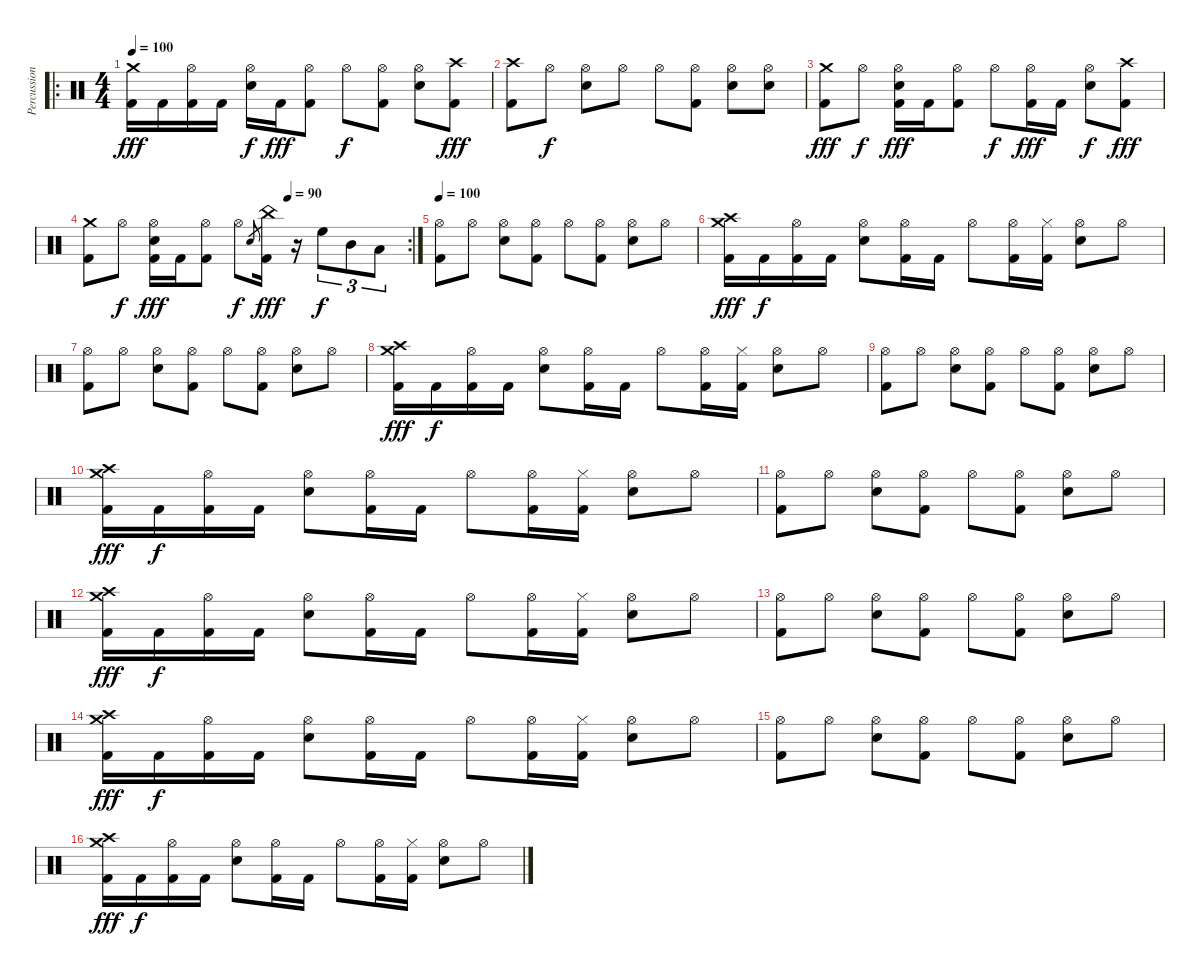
\track ("Percussion" "Percussion") {instrument percussion}
\staff {score}
\articulation defaults
\ro
\ts (4 4)
\tempo 100
\clef neutral
\ks c
("Crash medium (hit)" "Kick (hit) 2").16{dy fff} "Kick (hit) 2".16 ("Hi-Hat (open)" "Kick (hit) 2").16 "Kick (hit) 2".16 ("Hi-Hat (open)" "Electric Snare (hit)").16{dy f} "Kick (hit) 2".16{dy fff} ("Hi-Hat (open)" "Kick (hit) 2").8 "Hi-Hat (open)".8{dy f} ("Hi-Hat (open)" "Kick (hit) 2").8 ("Hi-Hat (open)" "Electric Snare (hit)").8 ("Crash high (hit)" "Kick (hit) 2").8{dy fff} |
("Crash high (hit)" "Kick (hit) 2").8 "Hi-Hat (open)".8{dy f} ("Hi-Hat (open)" "Electric Snare (hit)").8 "Hi-Hat (open)".8 "Hi-Hat (open)".8 ("Hi-Hat (open)" "Kick (hit) 2").8 ("Hi-Hat (open)" "Electric Snare (hit)").8 ("Hi-Hat (open)" "Electric Snare (hit)").8 |
("Crash medium (hit)" "Kick (hit) 2").8{dy fff} "Hi-Hat (open)".8{dy f} ("Hi-Hat (open)" "Electric Snare (hit)" "Kick (hit) 2").16{dy fff} "Kick (hit) 2".16 ("Hi-Hat (open)" "Kick (hit) 2").8 "Hi-Hat (open)".8{dy f} ("Hi-Hat (open)" "Kick (hit) 2").16{dy fff} "Kick (hit) 2".16 ("Hi-Hat (open)" "Electric Snare (hit)").8{dy f} ("Crash high (hit)" "Kick (hit) 2").8{dy fff} |
\rc 2
\tempo (90 0.625)
("Crash medium (hit)" "Kick (hit) 2").8 "Hi-Hat (open)".8{dy f} ("Hi-Hat (open)" "Electric Snare (hit)" "Kick (hit) 2").16{dy fff} "Kick (hit) 2".16 ("Hi-Hat (open)" "Kick (hit) 2").8 "Hi-Hat (open)".8{dy f} "Electric Snare (hit)".8{gr} ("China (hit)" "Kick (hit) 2").16{dy fff} r.16 "High Floor Tom (hit)".8{tu (3 2) dy f} "Mid Tom (hit)".8{tu (3 2)} "Low Tom (hit)".8{tu (3 2)} |
\tempo 100
("Hi-Hat (open)" "Kick (hit) 2").8 "Hi-Hat (open)".8 ("Hi-Hat (open)" "Electric Snare (hit)").8 ("Hi-Hat (open)" "Kick (hit) 2").8 "Hi-Hat (open)".8 ("Hi-Hat (open)" "Kick (hit) 2").8 ("Hi-Hat (open)" "Electric Snare (hit)").8 "Hi-Hat (open)".8 |
("Crash medium (hit)" "Crash high (hit)" "Kick (hit) 2").16{dy fff} "Kick (hit) 2".16{dy f} ("Hi-Hat (open)" "Kick (hit) 2").16 "Kick (hit) 2".16 ("Hi-Hat (open)" "Electric Snare (hit)").8 ("Hi-Hat (open)" "Kick (hit) 2").16 "Kick (hit) 2".16 "Hi-Hat (open)".8 ("Hi-Hat (open)" "Kick (hit) 2").16 ("Hi-Hat (closed)" "Kick (hit) 2").16 ("Hi-Hat (open)" "Electric Snare (hit)").8 "Hi-Hat (open)".8 |
("Hi-Hat (open)" "Kick (hit) 2").8 "Hi-Hat (open)".8 ("Hi-Hat (open)" "Electric Snare (hit)").8 ("Hi-Hat (open)" "Kick (hit) 2").8 "Hi-Hat (open)".8 ("Hi-Hat (open)" "Kick (hit) 2").8 ("Hi-Hat (open)" "Electric Snare (hit)").8 "Hi-Hat (open)".8 |
("Crash medium (hit)" "Crash high (hit)" "Kick (hit) 2").16{dy fff} "Kick (hit) 2".16{dy f} ("Hi-Hat (open)" "Kick (hit) 2").16 "Kick (hit) 2".16 ("Hi-Hat (open)" "Electric Snare (hit)").8 ("Hi-Hat (open)" "Kick (hit) 2").16 "Kick (hit) 2".16 "Hi-Hat (open)".8 ("Hi-Hat (open)" "Kick (hit) 2").16 ("Hi-Hat (closed)" "Kick (hit) 2").16 ("Hi-Hat (open)" "Electric Snare (hit)").8 "Hi-Hat (open)".8 |
("Hi-Hat (open)" "Kick (hit) 2").8 "Hi-Hat (open)".8 ("Hi-Hat (open)" "Electric Snare (hit)").8 ("Hi-Hat (open)" "Kick (hit) 2").8 "Hi-Hat (open)".8 ("Hi-Hat (open)" "Kick (hit) 2").8 ("Hi-Hat (open)" "Electric Snare (hit)").8 "Hi-Hat (open)".8 |
("Crash medium (hit)" "Crash high (hit)" "Kick (hit) 2").16{dy fff} "Kick (hit) 2".16{dy f} ("Hi-Hat (open)" "Kick (hit) 2").16 "Kick (hit) 2".16 ("Hi-Hat (open)" "Electric Snare (hit)").8 ("Hi-Hat (open)" "Kick (hit) 2").16 "Kick (hit) 2".16 "Hi-Hat (open)".8 ("Hi-Hat (open)" "Kick (hit) 2").16 ("Hi-Hat (closed)" "Kick (hit) 2").16 ("Hi-Hat (open)" "Electric Snare (hit)").8 "Hi-Hat (open)".8 |
("Hi-Hat (open)" "Kick (hit) 2").8 "Hi-Hat (open)".8 ("Hi-Hat (open)" "Electric Snare (hit)").8 ("Hi-Hat (open)" "Kick (hit) 2").8 "Hi-Hat (open)".8 ("Hi-Hat (open)" "Kick (hit) 2").8 ("Hi-Hat (open)" "Electric Snare (hit)").8 "Hi-Hat (open)".8 |
("Crash medium (hit)" "Crash high (hit)" "Kick (hit) 2").16{dy fff} "Kick (hit) 2".16{dy f} ("Hi-Hat (open)" "Kick (hit) 2").16 "Kick (hit) 2".16 ("Hi-Hat (open)" "Electric Snare (hit)").8 ("Hi-Hat (open)" "Kick (hit) 2").16 "Kick (hit) 2".16 "Hi-Hat (open)".8 ("Hi-Hat (open)" "Kick (hit) 2").16 ("Hi-Hat (closed)" "Kick (hit) 2").16 ("Hi-Hat (open)" "Electric Snare (hit)").8 "Hi-Hat (open)".8 |
("Hi-Hat (open)" "Kick (hit) 2").8 "Hi-Hat (open)".8 ("Hi-Hat (open)" "Electric Snare (hit)").8 ("Hi-Hat (open)" "Kick (hit) 2").8 "Hi-Hat (open)".8 ("Hi-Hat (open)" "Kick (hit) 2").8 ("Hi-Hat (open)" "Electric Snare (hit)").8 "Hi-Hat (open)".8 |
("Crash medium (hit)" "Crash high (hit)" "Kick (hit) 2").16{dy fff} "Kick (hit) 2".16{dy f} ("Hi-Hat (open)" "Kick (hit) 2").16 "Kick (hit) 2".16 ("Hi-Hat (open)" "Electric Snare (hit)").8 ("Hi-Hat (open)" "Kick (hit) 2").16 "Kick (hit) 2".16 "Hi-Hat (open)".8 ("Hi-Hat (open)" "Kick (hit) 2").16 ("Hi-Hat (closed)" "Kick (hit) 2").16 ("Hi-Hat (open)" "Electric Snare (hit)").8 "Hi-Hat (open)".8 |
("Hi-Hat (open)" "Kick (hit) 2").8 "Hi-Hat (open)".8 ("Hi-Hat (open)" "Electric Snare (hit)").8 ("Hi-Hat (open)" "Kick (hit) 2").8 "Hi-Hat (open)".8 ("Hi-Hat (open)" "Kick (hit) 2").8 ("Hi-Hat (open)" "Electric Snare (hit)").8 "Hi-Hat (open)".8 |
("Crash medium (hit)" "Crash high (hit)" "Kick (hit) 2").16{dy fff} "Kick (hit) 2".16{dy f} ("Hi-Hat (open)" "Kick (hit) 2").16 "Kick (hit) 2".16 ("Hi-Hat (open)" "Electric Snare (hit)").8 ("Hi-Hat (open)" "Kick (hit) 2").16 "Kick (hit) 2".16 "Hi-Hat (open)".8 ("Hi-Hat (open)" "Kick (hit) 2").16 ("Hi-Hat (closed)" "Kick (hit) 2").16 ("Hi-Hat (open)" "Electric Snare (hit)").8 "Hi-Hat (open)".8
